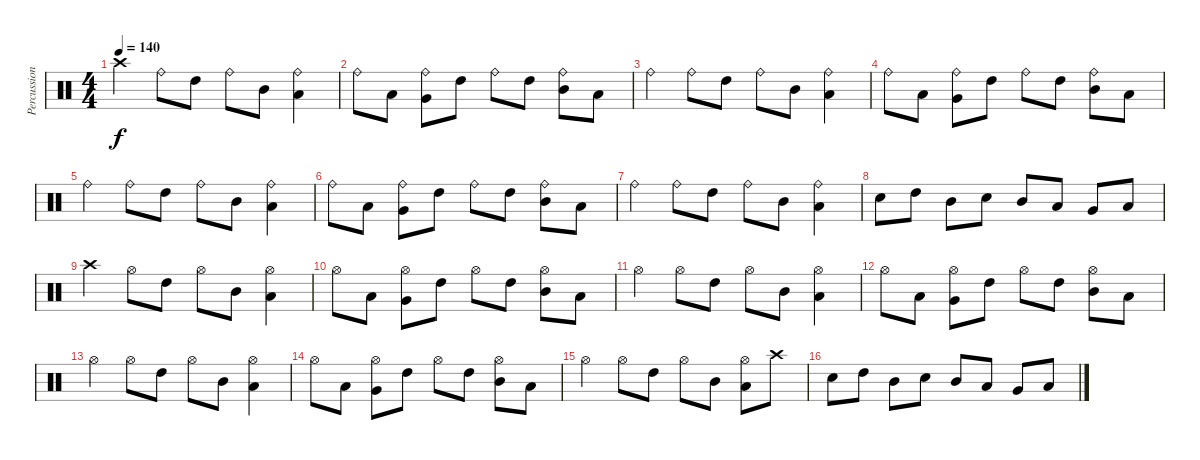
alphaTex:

\track ("Percussion" "Percussion") {instrument percussion}
\staff {score}
\articulation defaults
\ts (4 4)
\tempo 140
\clef neutral
\ks c "Crash high (hit)".4{dy f} "Ride (bell)".8 "High Tom (hit)".8 "Ride (bell)".8 "Mid Tom (hit)".8
("Ride (bell)" "Low Tom (hit)").4 |
"Ride (bell)".8 "Low Tom (hit)".8 ("Ride (bell)" "Very Low Tom (hit)").8 "High Tom (hit)".8 "Ride (bell)".8 "High Tom (hit)".8 ("Ride (bell)" "Mid Tom (hit)").8 "Low Tom (hit)".8 |
"Ride (bell)".4 "Ride (bell)".8 "High Tom (hit)".8 "Ride (bell)".8 "Mid Tom (hit)".8 ("Ride (bell)" "Low Tom (hit)").4 |
"Ride (bell)".8 "Low Tom (hit)".8 ("Ride (bell)" "Very Low Tom (hit)").8 "High Tom (hit)".8 "Ride (bell)".8 "High Tom (hit)".8 ("Ride (bell)" "Mid Tom (hit)").8 "Low Tom (hit)".8 |
"Ride (bell)".4 "Ride (bell)".8 "High Tom (hit)".8 "Ride (bell)".8 "Mid Tom (hit)".8 ("Ride (bell)" "Low Tom (hit)").4 |
"Ride (bell)".8 "Low Tom (hit)".8 ("Ride (bell)" "Very Low Tom (hit)").8 "High Tom (hit)".8 "Ride (bell)".8 "High Tom (hit)".8 ("Ride (bell)" "Mid Tom (hit)").8 "Low Tom (hit)".8 |
"Ride (bell)".4 "Ride (bell)".8 "High Tom (hit)".8 "Ride (bell)".8 "Mid Tom (hit)".8 ("Ride (bell)" "Low Tom (hit)").4 |
"Snare (hit) 2".8 "High Tom (hit)".8 "Mid Tom (hit)".8 "Snare (hit) 2".8 "Mid Tom (hit)".8 "Low Tom (hit)".8 "Very Low Tom (hit)".8 "Low Floor Tom (hit)".8 |
"Crash high (hit)".4 "Hi-Hat (open)".8 "High Tom (hit)".8 "Hi-Hat (open)".8 "Mid Tom (hit)".8 ("Hi-Hat (open)" "Low Tom (hit)").4 |
"Hi-Hat (open)".8 "Low Tom (hit)".8 ("Hi-Hat (open)" "Very Low Tom (hit)").8 "High Tom (hit)".8 "Hi-Hat (open)".8 "High Tom (hit)".8 ("Hi-Hat (open)" "Mid Tom (hit)").8 "Low Tom (hit)".8 |
"Hi-Hat (open)".4 "Hi-Hat (open)".8 "High Tom (hit)".8 "Hi-Hat (open)".8 "Mid Tom (hit)".8 ("Hi-Hat (open)" "Low Tom (hit)").4 |
"Hi-Hat (open)".8 "Low Tom (hit)".8 ("Hi-Hat (open)" "Very Low Tom (hit)").8 "High Tom (hit)".8 "Hi-Hat (open)".8 "High Tom (hit)".8 ("Hi-Hat (open)" "Mid Tom (hit)").8 "Low Tom (hit)".8 |
"Hi-Hat (open)".4 "Hi-Hat (open)".8 "High Tom (hit)".8 "Hi-Hat (open)".8 "Mid Tom (hit)".8 ("Hi-Hat (open)" "Low Tom (hit)").4 |
"Hi-Hat (open)".8 "Low Tom (hit)".8 ("Hi-Hat (open)" "Very Low Tom (hit)").8 "High Tom (hit)".8 "Hi-Hat (open)".8 "High Tom (hit)".8 ("Hi-Hat (open)" "Mid Tom (hit)").8 "Low Tom (hit)".8 |
"Hi-Hat (open)".4 "Hi-Hat (open)".8 "High Tom (hit)".8 "Hi-Hat (open)".8 "Mid Tom (hit)".8 ("Hi-Hat (open)" "Low Tom (hit)").8 "Crash high (hit)".8 |
"Snare (hit) 2".8 "High Tom (hit)".8 "Mid Tom (hit)".8 "Snare (hit) 2".8 "Mid Tom (hit)".8 "Low Tom (hit)".8 "Very Low Tom (hit)".8 "Low Floor Tom (hit)".8
